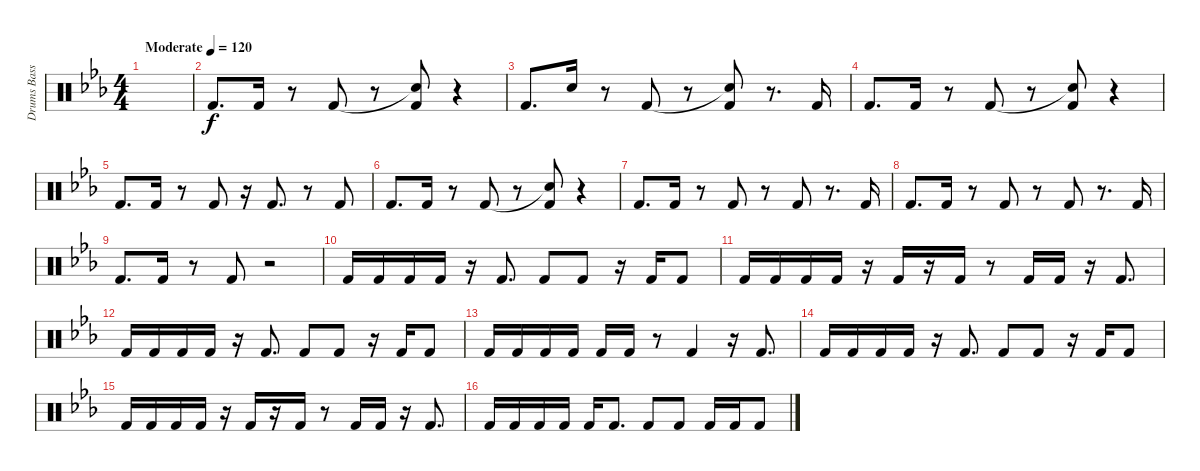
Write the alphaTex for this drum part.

\track ("Drums Bass" "Drums Bass") {instrument percussion}
\staff {score}
\articulation defaults
\ts (4 4)
\tempo (120 "Moderate")
\clef neutral
\ks eb
|
"Kick (hit) 2".8{d} "Kick (hit) 2".16 r.8 "Kick (hit) 2".8 r.8 ("Snare (hit)"{t} "Kick (hit) 2").8 r.4 |
"Kick (hit) 2".8{d} "Snare (hit)".16 r.8 "Kick (hit) 2".8 r.8 ("Snare (hit)"{t} "Kick (hit) 2").8 r.8{d} "Kick (hit) 2".16 |
"Kick (hit) 2".8{d} "Kick (hit) 2".16 r.8 "Kick (hit) 2".8 r.8 ("Snare (hit)"{t} "Kick (hit) 2").8 r.4 |
"Kick (hit) 2".8{d} "Kick (hit) 2".16 r.8 "Kick (hit) 2".8 r.16 "Kick (hit) 2".8{d} r.8 "Kick (hit) 2".8 |
"Kick (hit) 2".8{d} "Kick (hit) 2".16 r.8 "Kick (hit) 2".8 r.8 ("Snare (hit)"{t} "Kick (hit) 2").8 r.4 |
"Kick (hit) 2".8{d} "Kick (hit) 2".16 r.8 "Kick (hit) 2".8 r.8 "Kick (hit) 2".8 r.8{d} "Kick (hit) 2".16 |
"Kick (hit) 2".8{d} "Kick (hit) 2".16 r.8 "Kick (hit) 2".8 r.8 "Kick (hit) 2".8 r.8{d} "Kick (hit) 2".16 |
"Kick (hit) 2".8{d} "Kick (hit) 2".16 r.8 "Kick (hit) 2".8 r.2 |
"Kick (hit) 2".16 "Kick (hit) 2".16 "Kick (hit) 2".16 "Kick (hit) 2".16 r.16 "Kick (hit) 2".8{d} "Kick (hit) 2".8 "Kick (hit) 2".8 r.16 "Kick (hit) 2".16 "Kick (hit) 2".8 |
"Kick (hit) 2".16 "Kick (hit) 2".16 "Kick (hit) 2".16 "Kick (hit) 2".16 r.16 "Kick (hit) 2".16 r.16 "Kick (hit) 2".16 r.8 "Kick (hit) 2".16 "Kick (hit) 2".16 r.16 "Kick (hit) 2".8{d} |
"Kick (hit) 2".16 "Kick (hit) 2".16 "Kick (hit) 2".16 "Kick (hit) 2".16 r.16 "Kick (hit) 2".8{d} "Kick (hit) 2".8 "Kick (hit) 2".8 r.16 "Kick (hit) 2".16 "Kick (hit) 2".8 |
"Kick (hit) 2".16 "Kick (hit) 2".16 "Kick (hit) 2".16 "Kick (hit) 2".16 "Kick (hit) 2".16 "Kick (hit) 2".16 r.8 "Kick (hit) 2".4 r.16 "Kick (hit) 2".8{d} |
"Kick (hit) 2".16 "Kick (hit) 2".16 "Kick (hit) 2".16 "Kick (hit) 2".16 r.16 "Kick (hit) 2".8{d} "Kick (hit) 2".8 "Kick (hit) 2".8 r.16 "Kick (hit) 2".16 "Kick (hit) 2".8 |
"Kick (hit) 2".16 "Kick (hit) 2".16 "Kick (hit) 2".16 "Kick (hit) 2".16 r.16 "Kick (hit) 2".16 r.16 "Kick (hit) 2".16 r.8 "Kick (hit) 2".16 "Kick (hit) 2".16 r.16 "Kick (hit) 2".8{d} |
"Kick (hit) 2".16 "Kick (hit) 2".16 "Kick (hit) 2".16 "Kick (hit) 2".16 "Kick (hit) 2".16 "Kick (hit) 2".8{d} "Kick (hit) 2".8 "Kick (hit) 2".8 "Kick (hit) 2".16 "Kick (hit) 2".16 "Kick (hit) 2".8
